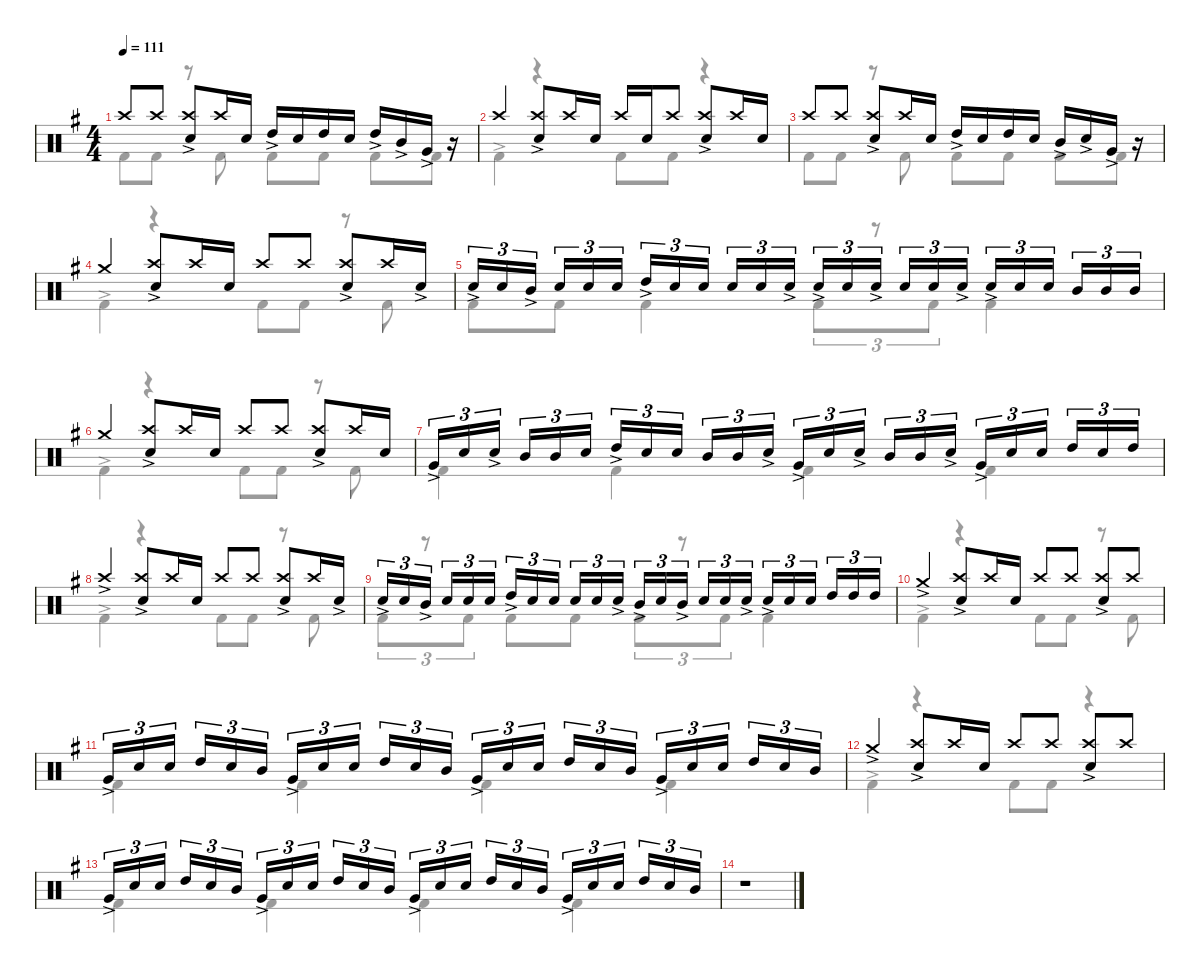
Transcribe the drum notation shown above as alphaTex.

\defaultSystemsLayout 4
\hideDynamics
\bracketExtendMode nobrackets
\singleTrackTrackNamePolicy hidden
\multiTrackTrackNamePolicy hidden
\firstSystemTrackNameMode fullname
\firstSystemTrackNameOrientation horizontal
\otherSystemsTrackNameOrientation horizontal
\track ("Drums: Mitch Mitchell" "drm.") {defaultSystemsLayout 4 instrument percussion}
\staff {score}
\articulation defaults
\voice
\ts (4 4)
\tempo 111
\clef neutral
\ks g "Crash high (hit)"{acc forcenatural}.8{dy mf beam Up} "Crash high (hit)"{acc forcenatural}.8{beam Up}
("Crash high (hit)"{acc forcenatural} "Snare (hit) 2"{ac acc forcenatural}).8{beam Up} "Crash high (hit)"{acc forcenatural}.16{beam Up} "Snare (hit) 2"{acc forcenatural}.16{beam Up} "High Tom (hit)"{ac acc forcenatural}.16{beam Up} "Snare (hit) 2"{acc forcenatural}.16{beam Up} "High Tom (hit)"{acc forcenatural}.16{beam Up} "Snare (hit) 2"{acc forcenatural}.16{beam Up} "High Tom (hit)"{ac acc forcenatural}.16{beam Up} "Mid Tom (hit)"{ac acc forcenatural}.16{beam Up} "Very Low Tom (hit)"{ac acc forcenatural}.16{beam Up} r.16{beam Up} |
"Crash high (hit)"{acc forcenatural}.4{beam Up} ("Crash high (hit)"{acc forcenatural} "Snare (hit) 2"{ac acc forcenatural}).8{beam Up} "Crash high (hit)"{acc forcenatural}.16{beam Up} "Snare (hit) 2"{acc forcenatural}.16{beam Up} "Crash high (hit)"{acc forcenatural}.16{beam Up} "Snare (hit) 2"{acc forcenatural}.16{beam Up} "Crash high (hit)"{acc forcenatural}.8{beam Up} ("Crash high (hit)"{acc forcenatural} "Snare (hit) 2"{ac acc forcenatural}).8{beam Up} "Crash high (hit)"{acc forcenatural}.16{beam Up} "Snare (hit) 2"{acc forcenatural}.16{beam Up} |
"Crash high (hit)"{acc forcenatural}.8{beam Up} "Crash high (hit)"{acc forcenatural}.8{beam Up} ("Crash high (hit)"{acc forcenatural} "Snare (hit) 2"{ac acc forcenatural}).8{beam Up} "Crash high (hit)"{acc forcenatural}.16{beam Up} "Snare (hit) 2"{acc forcenatural}.16{beam Up} "High Tom (hit)"{ac acc forcenatural}.16{beam Up} "Snare (hit) 2"{acc forcenatural}.16{beam Up} "High Tom (hit)"{acc forcenatural}.16{beam Up} "Snare (hit) 2"{acc forcenatural}.16{beam Up} "Mid Tom (hit)"{ac acc forcenatural}.16{beam Up} "Snare (hit) 2"{ac acc forcenatural}.16{beam Up} "Very Low Tom (hit)"{ac acc forcenatural}.16{beam Up} r.16{beam Up} |
"Crash medium (hit)"{acc forcenatural}.4{beam Up} ("Crash high (hit)"{acc forcenatural} "Snare (hit) 2"{ac acc forcenatural}).8{beam Up} "Crash high (hit)"{acc forcenatural}.16{beam Up} "Snare (hit) 2"{acc forcenatural}.16{beam Up} "Crash high (hit)"{acc forcenatural}.8{beam Up} "Crash high (hit)"{acc forcenatural}.8{beam Up} ("Crash high (hit)"{acc forcenatural} "Snare (hit) 2"{ac acc forcenatural}).8{beam Up} "Crash high (hit)"{acc forcenatural}.16{beam Up} "Snare (hit) 2"{ac acc forcenatural}.16{beam Up} |
"Snare (hit) 2"{ac acc forcenatural}.16{tu (3 2) beam Up} "Snare (hit) 2"{acc forcenatural}.16{tu (3 2) beam Up} "Mid Tom (hit)"{ac acc forcenatural}.16{tu (3 2) beam Up} "Snare (hit) 2"{acc forcenatural}.16{tu (3 2) beam Up} "Snare (hit) 2"{acc forcenatural}.16{tu (3 2) beam Up} "Snare (hit) 2"{acc forcenatural}.16{tu (3 2) beam Up} "High Tom (hit)"{ac acc forcenatural}.16{tu (3 2) beam Up} "Snare (hit) 2"{acc forcenatural}.16{tu (3 2) beam Up} "Snare (hit) 2"{acc forcenatural}.16{tu (3 2) beam Up} "Snare (hit) 2"{acc forcenatural}.16{tu (3 2) beam Up} "Snare (hit) 2"{acc forcenatural}.16{tu (3 2) beam Up} "Snare (hit) 2"{ac acc forcenatural}.16{tu (3 2) beam Up} "Snare (hit) 2"{ac acc forcenatural}.16{tu (3 2) beam Up} "Snare (hit) 2"{acc forcenatural}.16{tu (3 2) beam Up} "Snare (hit) 2"{ac acc forcenatural}.16{tu (3 2) beam Up} "Snare (hit) 2"{acc forcenatural}.16{tu (3 2) beam Up} "Snare (hit) 2"{acc forcenatural}.16{tu (3 2) beam Up} "Snare (hit) 2"{ac acc forcenatural}.16{tu (3 2) beam Up} "Snare (hit) 2"{ac acc forcenatural}.16{tu (3 2) beam Up} "Snare (hit) 2"{acc forcenatural}.16{tu (3 2) beam Up} "Snare (hit) 2"{acc forcenatural}.16{tu (3 2) beam Up} "Mid Tom (hit)"{acc forcenatural}.16{tu (3 2) beam Up} "Mid Tom (hit)"{acc forcenatural}.16{tu (3 2) beam Up} "Mid Tom (hit)"{acc forcenatural}.16{tu (3 2) beam Up} |
"Crash medium (hit)"{acc forcenatural}.4{beam Up} ("Crash high (hit)"{acc forcenatural} "Snare (hit) 2"{ac acc forcenatural}).8{beam Up} "Crash high (hit)"{acc forcenatural}.16{beam Up} "Snare (hit) 2"{acc forcenatural}.16{beam Up} "Crash high (hit)"{acc forcenatural}.8{beam Up} "Crash high (hit)"{acc forcenatural}.8{beam Up} ("Crash high (hit)"{acc forcenatural} "Snare (hit) 2"{ac acc forcenatural}).8{beam Up} "Crash high (hit)"{acc forcenatural}.16{beam Up} "Snare (hit) 2"{acc forcenatural}.16{beam Up} |
"Very Low Tom (hit)"{ac acc forcenatural}.16{tu (3 2) beam Up} "Snare (hit) 2"{acc forcenatural}.16{tu (3 2) beam Up} "Snare (hit) 2"{ac acc forcenatural}.16{tu (3 2) beam Up} "Mid Tom (hit)"{acc forcenatural}.16{tu (3 2) beam Up} "Mid Tom (hit)"{acc forcenatural}.16{tu (3 2) beam Up} "Snare (hit) 2"{acc forcenatural}.16{tu (3 2) beam Up} "High Tom (hit)"{ac acc forcenatural}.16{tu (3 2) beam Up} "Snare (hit) 2"{acc forcenatural}.16{tu (3 2) beam Up} "Snare (hit) 2"{acc forcenatural}.16{tu (3 2) beam Up} "Mid Tom (hit)"{acc forcenatural}.16{tu (3 2) beam Up} "Mid Tom (hit)"{acc forcenatural}.16{tu (3 2) beam Up} "Snare (hit) 2"{ac acc forcenatural}.16{tu (3 2) beam Up} "Very Low Tom (hit)"{ac acc forcenatural}.16{tu (3 2) beam Up} "Snare (hit) 2"{acc forcenatural}.16{tu (3 2) beam Up} "Snare (hit) 2"{ac acc forcenatural}.16{tu (3 2) beam Up} "Mid Tom (hit)"{acc forcenatural}.16{tu (3 2) beam Up} "Mid Tom (hit)"{acc forcenatural}.16{tu (3 2) beam Up} "Snare (hit) 2"{ac acc forcenatural}.16{tu (3 2) beam Up} "Very Low Tom (hit)"{ac acc forcenatural}.16{tu (3 2) beam Up} "Snare (hit) 2"{acc forcenatural}.16{tu (3 2) beam Up} "Snare (hit) 2"{acc forcenatural}.16{tu (3 2) beam Up} "High Tom (hit)"{acc forcenatural}.16{tu (3 2) beam Up} "Snare (hit) 2"{acc forcenatural}.16{tu (3 2) beam Up} "High Tom (hit)"{acc forcenatural}.16{tu (3 2) beam Up} |
"Crash high (hit)"{ac acc forcenatural}.4{beam Up} ("Crash high (hit)"{acc forcenatural} "Snare (hit) 2"{ac acc forcenatural}).8{beam Up} "Crash high (hit)"{acc forcenatural}.16{beam Up} "Snare (hit) 2"{acc forcenatural}.16{beam Up} "Crash high (hit)"{acc forcenatural}.8{beam Up} "Crash high (hit)"{acc forcenatural}.8{beam Up} ("Crash high (hit)"{acc forcenatural} "Snare (hit) 2"{ac acc forcenatural}).8{beam Up} "Crash high (hit)"{acc forcenatural}.16{beam Up} "Snare (hit) 2"{ac acc forcenatural}.16{beam Up} |
"Snare (hit) 2"{ac acc forcenatural}.16{tu (3 2) beam Up} "Snare (hit) 2"{acc forcenatural}.16{tu (3 2) beam Up} "Mid Tom (hit)"{ac acc forcenatural}.16{tu (3 2) beam Up} "Snare (hit) 2"{acc forcenatural}.16{tu (3 2) beam Up} "Snare (hit) 2"{acc forcenatural}.16{tu (3 2) beam Up} "Snare (hit) 2"{acc forcenatural}.16{tu (3 2) beam Up} "High Tom (hit)"{ac acc forcenatural}.16{tu (3 2) beam Up} "Snare (hit) 2"{acc forcenatural}.16{tu (3 2) beam Up} "Snare (hit) 2"{acc forcenatural}.16{tu (3 2) beam Up} "Snare (hit) 2"{acc forcenatural}.16{tu (3 2) beam Up} "Snare (hit) 2"{acc forcenatural}.16{tu (3 2) beam Up} "Snare (hit) 2"{ac acc forcenatural}.16{tu (3 2) beam Up} "Mid Tom (hit)"{ac acc forcenatural}.16{tu (3 2) beam Up} "Snare (hit) 2"{acc forcenatural}.16{tu (3 2) beam Up} "Mid Tom (hit)"{ac acc forcenatural}.16{tu (3 2) beam Up} "Snare (hit) 2"{acc forcenatural}.16{tu (3 2) beam Up} "Snare (hit) 2"{acc forcenatural}.16{tu (3 2) beam Up} "Snare (hit) 2"{ac acc forcenatural}.16{tu (3 2) beam Up} "Snare (hit) 2"{ac acc forcenatural}.16{tu (3 2) beam Up} "Snare (hit) 2"{acc forcenatural}.16{tu (3 2) beam Up} "Snare (hit) 2"{acc forcenatural}.16{tu (3 2) beam Up} "High Tom (hit)"{acc forcenatural}.16{tu (3 2) beam Up} "High Tom (hit)"{acc forcenatural}.16{tu (3 2) beam Up} "High Tom (hit)"{acc forcenatural}.16{tu (3 2) beam Up} |
"Crash medium (hit)"{ac acc forcenatural}.4{beam Up} ("Crash high (hit)"{acc forcenatural} "Snare (hit) 2"{ac acc forcenatural}).8{beam Up} "Crash high (hit)"{acc forcenatural}.16{beam Up} "Snare (hit) 2"{acc forcenatural}.16{beam Up} "Crash high (hit)"{acc forcenatural}.8{beam Up} "Crash high (hit)"{acc forcenatural}.8{beam Up} ("Crash high (hit)"{acc forcenatural} "Snare (hit) 2"{ac acc forcenatural}).8{beam Up} "Crash high (hit)"{acc forcenatural}.8{beam Up} |
"Very Low Tom (hit)"{ac acc forcenatural}.16{tu (3 2) beam Up} "Snare (hit) 2"{acc forcenatural}.16{tu (3 2) beam Up} "Snare (hit) 2"{acc forcenatural}.16{tu (3 2) beam Up} "High Tom (hit)"{acc forcenatural}.16{tu (3 2) beam Up} "Snare (hit) 2"{acc forcenatural}.16{tu (3 2) beam Up} "Mid Tom (hit)"{acc forcenatural}.16{tu (3 2) beam Up} "Very Low Tom (hit)"{ac acc forcenatural}.16{tu (3 2) beam Up} "Snare (hit) 2"{acc forcenatural}.16{tu (3 2) beam Up} "Snare (hit) 2"{acc forcenatural}.16{tu (3 2) beam Up} "High Tom (hit)"{acc forcenatural}.16{tu (3 2) beam Up} "Snare (hit) 2"{acc forcenatural}.16{tu (3 2) beam Up} "Mid Tom (hit)"{acc forcenatural}.16{tu (3 2) beam Up} "Very Low Tom (hit)"{ac acc forcenatural}.16{tu (3 2) beam Up} "Snare (hit) 2"{acc forcenatural}.16{tu (3 2) beam Up} "Snare (hit) 2"{acc forcenatural}.16{tu (3 2) beam Up} "High Tom (hit)"{acc forcenatural}.16{tu (3 2) beam Up} "Snare (hit) 2"{acc forcenatural}.16{tu (3 2) beam Up} "Mid Tom (hit)"{acc forcenatural}.16{tu (3 2) beam Up} "Very Low Tom (hit)"{ac acc forcenatural}.16{tu (3 2) beam Up} "Snare (hit) 2"{acc forcenatural}.16{tu (3 2) beam Up} "Snare (hit) 2"{acc forcenatural}.16{tu (3 2) beam Up} "High Tom (hit)"{acc forcenatural}.16{tu (3 2) beam Up} "Snare (hit) 2"{acc forcenatural}.16{tu (3 2) beam Up} "Mid Tom (hit)"{acc forcenatural}.16{tu (3 2) beam Up} |
"Crash medium (hit)"{ac acc forcenatural}.4{beam Up} ("Crash high (hit)"{acc forcenatural} "Snare (hit) 2"{ac acc forcenatural}).8{beam Up} "Crash high (hit)"{acc forcenatural}.16{beam Up} "Snare (hit) 2"{acc forcenatural}.16{beam Up} "Crash high (hit)"{acc forcenatural}.8{beam Up} "Crash high (hit)"{acc forcenatural}.8{beam Up} ("Crash high (hit)"{acc forcenatural} "Snare (hit) 2"{ac acc forcenatural}).8{beam Up} "Crash high (hit)"{acc forcenatural}.8{beam Up} |
"Very Low Tom (hit)"{ac acc forcenatural}.16{tu (3 2) beam Up} "Snare (hit) 2"{acc forcenatural}.16{tu (3 2) beam Up} "Snare (hit) 2"{acc forcenatural}.16{tu (3 2) beam Up} "High Tom (hit)"{acc forcenatural}.16{tu (3 2) beam Up} "Snare (hit) 2"{acc forcenatural}.16{tu (3 2) beam Up} "Mid Tom (hit)"{acc forcenatural}.16{tu (3 2) beam Up} "Very Low Tom (hit)"{ac acc forcenatural}.16{tu (3 2) beam Up} "Snare (hit) 2"{acc forcenatural}.16{tu (3 2) beam Up} "Snare (hit) 2"{acc forcenatural}.16{tu (3 2) beam Up} "High Tom (hit)"{acc forcenatural}.16{tu (3 2) beam Up} "Snare (hit) 2"{acc forcenatural}.16{tu (3 2) beam Up} "Mid Tom (hit)"{acc forcenatural}.16{tu (3 2) beam Up} "Very Low Tom (hit)"{ac acc forcenatural}.16{tu (3 2) beam Up} "Snare (hit) 2"{acc forcenatural}.16{tu (3 2) beam Up} "Snare (hit) 2"{acc forcenatural}.16{tu (3 2) beam Up} "High Tom (hit)"{acc forcenatural}.16{tu (3 2) beam Up} "Snare (hit) 2"{acc forcenatural}.16{tu (3 2) beam Up} "Mid Tom (hit)"{acc forcenatural}.16{tu (3 2) beam Up} "Very Low Tom (hit)"{ac acc forcenatural}.16{tu (3 2) beam Up} "Snare (hit) 2"{acc forcenatural}.16{tu (3 2) beam Up} "Snare (hit) 2"{acc forcenatural}.16{tu (3 2) beam Up} "High Tom (hit)"{acc forcenatural}.16{tu (3 2) beam Up} "Snare (hit) 2"{acc forcenatural}.16{tu (3 2) beam Up} "Mid Tom (hit)"{acc forcenatural}.16{tu (3 2) beam Up} |
r.1{beam Down}
\voice
\clef neutral
\ottava regular
\simile none
\ks g "Kick (hit) 2"{acc forcenatural}.8{dy mf beam Down} "Kick (hit) 2"{acc forcenatural}.8{beam Down}
r.8{beam Down} "Kick (hit) 2"{acc forcenatural}.8{beam Down} "Kick (hit) 2"{acc forcenatural}.8{beam Down} "Kick (hit) 2"{acc forcenatural}.8{beam Down} "Kick (hit) 2"{acc forcenatural}.8{beam Down} "Kick (hit) 2"{acc forcenatural}.8{beam Down} |
"Kick (hit) 2"{ac acc forcenatural}.4{beam Down} r.4{beam Down} "Kick (hit) 2"{acc forcenatural}.8{beam Down} "Kick (hit) 2"{acc forcenatural}.8{beam Down} r.4{beam Down} |
"Kick (hit) 2"{acc forcenatural}.8{beam Down} "Kick (hit) 2"{acc forcenatural}.8{beam Down} r.8{beam Down} "Kick (hit) 2"{acc forcenatural}.8{beam Down} "Kick (hit) 2"{acc forcenatural}.8{beam Down} "Kick (hit) 2"{acc forcenatural}.8{beam Down} "Kick (hit) 2"{acc forcenatural}.8{beam Down} "Kick (hit) 2"{acc forcenatural}.8{beam Down} |
"Kick (hit) 2"{ac acc forcenatural}.4{beam Down} r.4{beam Down} "Kick (hit) 2"{acc forcenatural}.8{beam Down} "Kick (hit) 2"{acc forcenatural}.8{beam Down} r.8{beam Down} "Kick (hit) 2"{acc forcenatural}.8{beam Down} |
"Kick (hit) 2"{acc forcenatural}.8{beam Down} "Kick (hit) 2"{acc forcenatural}.8{beam Down} "Kick (hit) 2"{acc forcenatural}.4{beam Down} "Kick (hit) 2"{acc forcenatural}.8{tu (3 2) beam Down} r.8{tu (3 2) beam Down} "Kick (hit) 2"{acc forcenatural}.8{tu (3 2) beam Down} "Kick (hit) 2"{acc forcenatural}.4{beam Down} |
"Kick (hit) 2"{ac acc forcenatural}.4{beam Down} r.4{beam Down} "Kick (hit) 2"{acc forcenatural}.8{beam Down} "Kick (hit) 2"{acc forcenatural}.8{beam Down} r.8{beam Down} "Kick (hit) 2"{acc forcenatural}.8{beam Down} |
"Kick (hit) 2"{acc forcenatural}.4{beam Down} "Kick (hit) 2"{acc forcenatural}.4{beam Down} "Kick (hit) 2"{acc forcenatural}.4{beam Down} "Kick (hit) 2"{acc forcenatural}.4{beam Down} |
"Kick (hit) 2"{ac acc forcenatural}.4{beam Down} r.4{beam Down} "Kick (hit) 2"{acc forcenatural}.8{beam Down} "Kick (hit) 2"{acc forcenatural}.8{beam Down} r.8{beam Down} "Kick (hit) 2"{acc forcenatural}.8{beam Down} |
"Kick (hit) 2"{acc forcenatural}.8{tu (3 2) beam Down} r.8{tu (3 2) beam Down} "Kick (hit) 2"{acc forcenatural}.8{tu (3 2) beam Down} "Kick (hit) 2"{acc forcenatural}.8{beam Down} "Kick (hit) 2"{acc forcenatural}.8{beam Down} "Kick (hit) 2"{acc forcenatural}.8{tu (3 2) beam Down} r.8{tu (3 2) beam Down} "Kick (hit) 2"{acc forcenatural}.8{tu (3 2) beam Down} "Kick (hit) 2"{acc forcenatural}.4{beam Down} |
"Kick (hit) 2"{ac acc forcenatural}.4{beam Down} r.4{beam Down} "Kick (hit) 2"{acc forcenatural}.8{beam Down} "Kick (hit) 2"{acc forcenatural}.8{beam Down} r.8{beam Down} "Kick (hit) 2"{acc forcenatural}.8{beam Down} |
"Kick (hit) 2"{acc forcenatural}.4{beam Down} "Kick (hit) 2"{acc forcenatural}.4{beam Down} "Kick (hit) 2"{acc forcenatural}.4{beam Down} "Kick (hit) 2"{acc forcenatural}.4{beam Down} |
"Kick (hit) 2"{ac acc forcenatural}.4{beam Down} r.4{beam Down} "Kick (hit) 2"{acc forcenatural}.8{beam Down} "Kick (hit) 2"{acc forcenatural}.8{beam Down} r.4{beam Down} |
"Kick (hit) 2"{acc forcenatural}.4{beam Down} "Kick (hit) 2"{acc forcenatural}.4{beam Down} "Kick (hit) 2"{acc forcenatural}.4{beam Down} "Kick (hit) 2"{acc forcenatural}.4{beam Down} |
